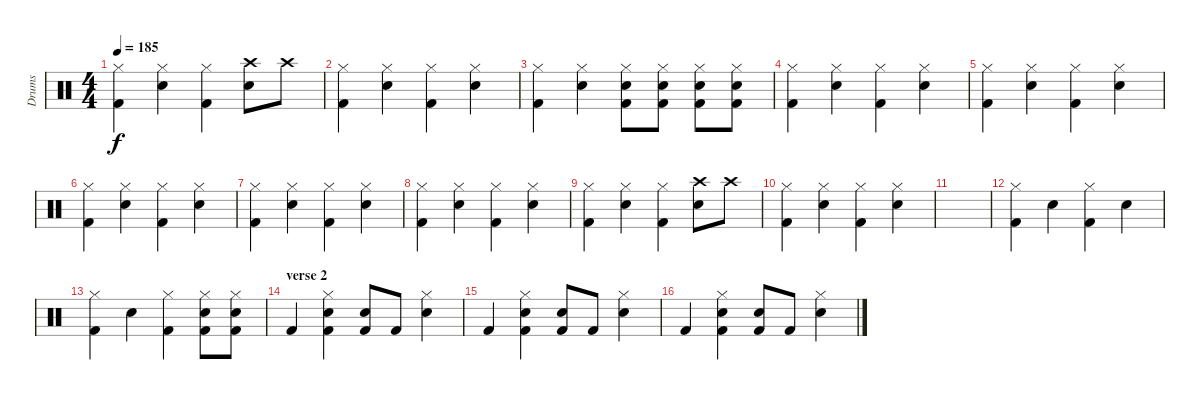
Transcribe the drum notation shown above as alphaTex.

\track ("Drums" "Drums") {instrument percussion}
\staff {score}
\articulation defaults
\ts (4 4)
\tempo 185
\clef neutral
\ks c
("Hi-Hat (closed)" "Kick (hit) 2").4{dy f} ("Hi-Hat (closed)" "Snare (hit) 2").4 ("Hi-Hat (closed)" "Kick (hit) 2").4 ("Crash high (hit)" "Snare (hit) 2").8 "Crash high (hit)".8 |
("Hi-Hat (closed)" "Kick (hit) 2").4 ("Hi-Hat (closed)" "Snare (hit) 2").4 ("Hi-Hat (closed)" "Kick (hit) 2").4 ("Hi-Hat (closed)" "Snare (hit) 2").4 |
("Hi-Hat (closed)" "Kick (hit) 2").4 ("Hi-Hat (closed)" "Snare (hit) 2").4 ("Hi-Hat (closed)" "Snare (hit) 2" "Kick (hit) 2").8 ("Hi-Hat (closed)" "Snare (hit) 2" "Kick (hit) 2").8 ("Hi-Hat (closed)" "Snare (hit) 2" "Kick (hit) 2").8 ("Hi-Hat (closed)" "Snare (hit) 2" "Kick (hit) 2").8 |
("Hi-Hat (closed)" "Kick (hit) 2").4 ("Hi-Hat (closed)" "Snare (hit) 2").4 ("Hi-Hat (closed)" "Kick (hit) 2").4 ("Hi-Hat (closed)" "Snare (hit) 2").4 |
("Hi-Hat (closed)" "Kick (hit) 2").4 ("Hi-Hat (closed)" "Snare (hit) 2").4 ("Hi-Hat (closed)" "Kick (hit) 2").4 ("Hi-Hat (closed)" "Snare (hit) 2").4 |
("Hi-Hat (closed)" "Kick (hit) 2").4 ("Hi-Hat (closed)" "Snare (hit) 2").4 ("Hi-Hat (closed)" "Kick (hit) 2").4 ("Hi-Hat (closed)" "Snare (hit) 2").4 |
("Hi-Hat (closed)" "Kick (hit) 2").4 ("Hi-Hat (closed)" "Snare (hit) 2").4 ("Hi-Hat (closed)" "Kick (hit) 2").4 ("Hi-Hat (closed)" "Snare (hit) 2").4 |
("Hi-Hat (closed)" "Kick (hit) 2").4 ("Hi-Hat (closed)" "Snare (hit) 2").4 ("Hi-Hat (closed)" "Kick (hit) 2").4 ("Hi-Hat (closed)" "Snare (hit) 2").4 |
("Hi-Hat (closed)" "Kick (hit) 2").4 ("Hi-Hat (closed)" "Snare (hit) 2").4 ("Hi-Hat (closed)" "Kick (hit) 2").4 ("Crash high (hit)" "Snare (hit) 2").8 "Crash high (hit)".8 |
("Hi-Hat (closed)" "Kick (hit) 2").4 ("Hi-Hat (closed)" "Snare (hit) 2").4 ("Hi-Hat (closed)" "Kick (hit) 2").4 ("Hi-Hat (closed)" "Snare (hit) 2").4 |
|
("Hi-Hat (closed)" "Kick (hit) 2").4 "Snare (hit) 2".4 ("Hi-Hat (closed)" "Kick (hit) 2").4 "Snare (hit) 2".4 |
("Hi-Hat (closed)" "Kick (hit) 2").4 "Snare (hit) 2".4 ("Hi-Hat (closed)" "Kick (hit) 2").4 ("Hi-Hat (closed)" "Snare (hit) 2" "Kick (hit) 2").8 ("Hi-Hat (closed)" "Snare (hit) 2" "Kick (hit) 2").8 |
\section ("" "verse 2")
"Kick (hit) 2".4 ("Hi-Hat (closed)" "Snare (hit) 2" "Kick (hit) 2").4 ("Snare (hit) 2" "Kick (hit) 2").8 "Kick (hit) 2".8 ("Hi-Hat (closed)" "Snare (hit) 2").4 |
"Kick (hit) 2".4 ("Hi-Hat (closed)" "Snare (hit) 2" "Kick (hit) 2").4 ("Snare (hit) 2" "Kick (hit) 2").8 "Kick (hit) 2".8 ("Hi-Hat (closed)" "Snare (hit) 2").4 |
"Kick (hit) 2".4 ("Hi-Hat (closed)" "Snare (hit) 2" "Kick (hit) 2").4 ("Snare (hit) 2" "Kick (hit) 2").8 "Kick (hit) 2".8 ("Hi-Hat (closed)" "Snare (hit) 2").4
